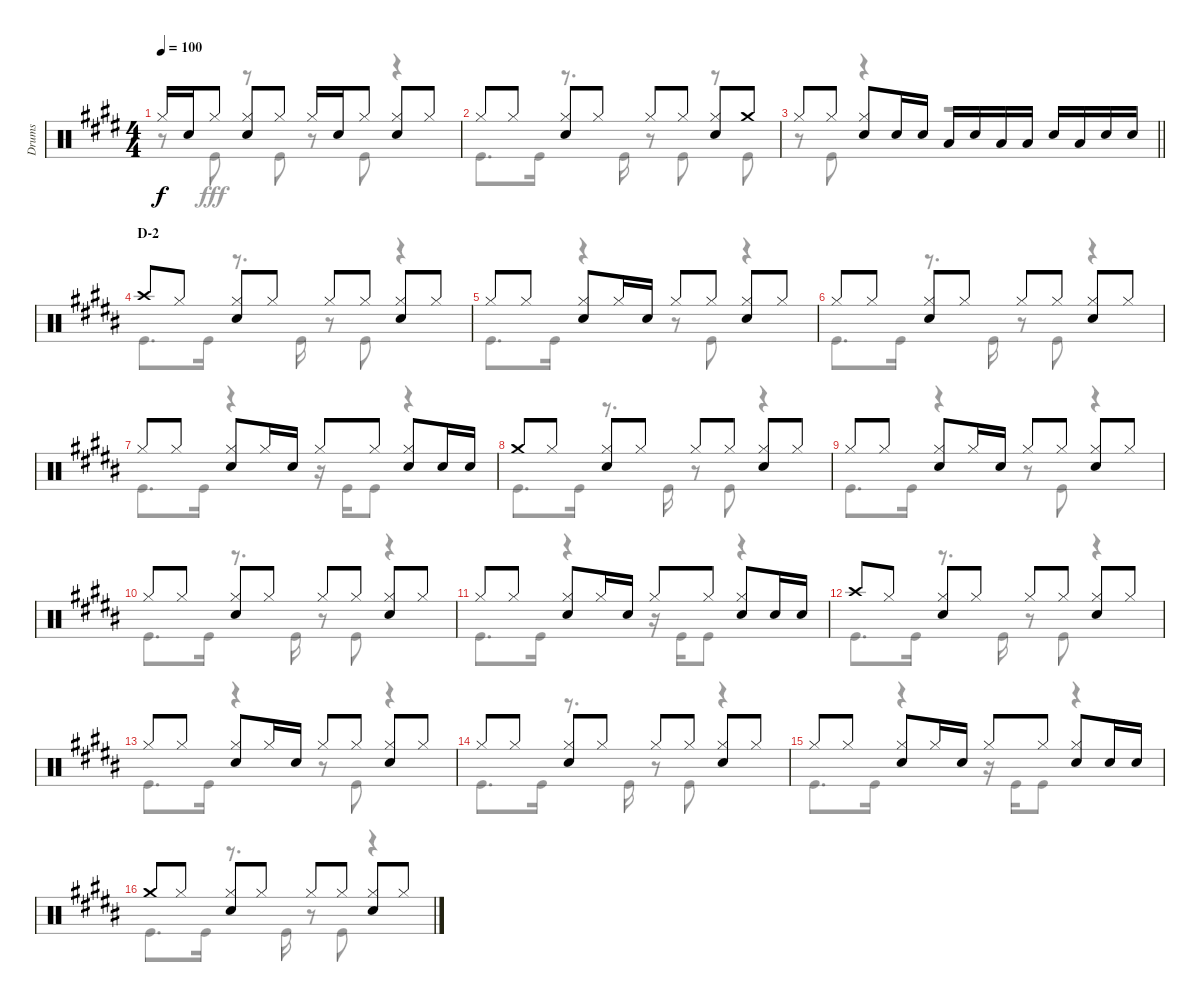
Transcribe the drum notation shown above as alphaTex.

\track ("Drums" "Drums") {instrument percussion}
\staff {score}
\articulation defaults
\voice
\ts (4 4)
\tempo 100
\clef neutral
\ks e "Hi-Hat (closed)".16{dy f} "Snare (hit) 2".16 "Hi-Hat (closed)".8
("Hi-Hat (closed)" "Snare (hit) 2").8 "Hi-Hat (closed)".8 "Hi-Hat (closed)".16 "Snare (hit) 2".16 "Hi-Hat (closed)".8 ("Hi-Hat (closed)" "Snare (hit) 2").8 "Hi-Hat (closed)".8 |
"Hi-Hat (closed)".8 "Hi-Hat (closed)".8 ("Hi-Hat (closed)" "Snare (hit) 2").8 "Hi-Hat (closed)".8 "Hi-Hat (closed)".8 "Hi-Hat (closed)".8 ("Hi-Hat (closed)" "Snare (hit) 2").8 "Crash medium (hit)".8 |
\barLineRight lightlight "Hi-Hat (closed)".8 "Hi-Hat (closed)".8
("Hi-Hat (closed)" "Snare (hit) 2").8 "Snare (hit) 2".16 "Snare (hit) 2".16 "Low Tom (hit)".16 "Snare (hit) 2".16 "Low Tom (hit)".16 "Low Tom (hit)".16 "Snare (hit) 2".16 "Low Tom (hit)".16 "Snare (hit) 2".16 "Snare (hit) 2".16 |
\section ("" "D-2")
\ks b "Crash high (hit)".8 "Hi-Hat (closed)".8
("Hi-Hat (closed)" "Snare (hit) 2").8 "Hi-Hat (closed)".8 "Hi-Hat (closed)".8 "Hi-Hat (closed)".8 ("Hi-Hat (closed)" "Snare (hit) 2").8 "Hi-Hat (closed)".8 |
"Hi-Hat (closed)".8 "Hi-Hat (closed)".8 ("Hi-Hat (closed)" "Snare (hit) 2").8 "Hi-Hat (closed)".16 "Snare (hit) 2".16 "Hi-Hat (closed)".8 "Hi-Hat (closed)".8 ("Hi-Hat (closed)" "Snare (hit) 2").8 "Hi-Hat (closed)".8 |
"Hi-Hat (closed)".8 "Hi-Hat (closed)".8 ("Hi-Hat (closed)" "Snare (hit) 2").8 "Hi-Hat (closed)".8 "Hi-Hat (closed)".8 "Hi-Hat (closed)".8 ("Hi-Hat (closed)" "Snare (hit) 2").8 "Hi-Hat (closed)".8 |
"Hi-Hat (closed)".8 "Hi-Hat (closed)".8 ("Hi-Hat (closed)" "Snare (hit) 2").8 "Hi-Hat (closed)".16 "Snare (hit) 2".16 "Hi-Hat (closed)".8 "Hi-Hat (closed)".8 ("Hi-Hat (closed)" "Snare (hit) 2").8 "Snare (hit) 2".16 "Snare (hit) 2".16 |
"Crash medium (hit)".8 "Hi-Hat (closed)".8 ("Hi-Hat (closed)" "Snare (hit) 2").8 "Hi-Hat (closed)".8 "Hi-Hat (closed)".8 "Hi-Hat (closed)".8 ("Hi-Hat (closed)" "Snare (hit) 2").8 "Hi-Hat (closed)".8 |
"Hi-Hat (closed)".8 "Hi-Hat (closed)".8 ("Hi-Hat (closed)" "Snare (hit) 2").8 "Hi-Hat (closed)".16 "Snare (hit) 2".16 "Hi-Hat (closed)".8 "Hi-Hat (closed)".8 ("Hi-Hat (closed)" "Snare (hit) 2").8 "Hi-Hat (closed)".8 |
"Hi-Hat (closed)".8 "Hi-Hat (closed)".8 ("Hi-Hat (closed)" "Snare (hit) 2").8 "Hi-Hat (closed)".8 "Hi-Hat (closed)".8 "Hi-Hat (closed)".8 ("Hi-Hat (closed)" "Snare (hit) 2").8 "Hi-Hat (closed)".8 |
"Hi-Hat (closed)".8 "Hi-Hat (closed)".8 ("Hi-Hat (closed)" "Snare (hit) 2").8 "Hi-Hat (closed)".16 "Snare (hit) 2".16 "Hi-Hat (closed)".8 "Hi-Hat (closed)".8 ("Hi-Hat (closed)" "Snare (hit) 2").8 "Snare (hit) 2".16 "Snare (hit) 2".16 |
"Crash high (hit)".8 "Hi-Hat (closed)".8 ("Hi-Hat (closed)" "Snare (hit) 2").8 "Hi-Hat (closed)".8 "Hi-Hat (closed)".8 "Hi-Hat (closed)".8 ("Hi-Hat (closed)" "Snare (hit) 2").8 "Hi-Hat (closed)".8 |
"Hi-Hat (closed)".8 "Hi-Hat (closed)".8 ("Hi-Hat (closed)" "Snare (hit) 2").8 "Hi-Hat (closed)".16 "Snare (hit) 2".16 "Hi-Hat (closed)".8 "Hi-Hat (closed)".8 ("Hi-Hat (closed)" "Snare (hit) 2").8 "Hi-Hat (closed)".8 |
"Hi-Hat (closed)".8 "Hi-Hat (closed)".8 ("Hi-Hat (closed)" "Snare (hit) 2").8 "Hi-Hat (closed)".8 "Hi-Hat (closed)".8 "Hi-Hat (closed)".8 ("Hi-Hat (closed)" "Snare (hit) 2").8 "Hi-Hat (closed)".8 |
"Hi-Hat (closed)".8 "Hi-Hat (closed)".8 ("Hi-Hat (closed)" "Snare (hit) 2").8 "Hi-Hat (closed)".16 "Snare (hit) 2".16 "Hi-Hat (closed)".8 "Hi-Hat (closed)".8 ("Hi-Hat (closed)" "Snare (hit) 2").8 "Snare (hit) 2".16 "Snare (hit) 2".16 |
"Crash medium (hit)".8 "Hi-Hat (closed)".8 ("Hi-Hat (closed)" "Snare (hit) 2").8 "Hi-Hat (closed)".8 "Hi-Hat (closed)".8 "Hi-Hat (closed)".8 ("Hi-Hat (closed)" "Snare (hit) 2").8 "Hi-Hat (closed)".8
\voice
\clef neutral
\ottava regular
\simile none
\ks e
r.8{dy fff} "Kick (hit)".8 r.8 "Kick (hit)".8 r.8 "Kick (hit)".8 r.4 |
"Kick (hit)".8{d} "Kick (hit)".16 r.8{d} "Kick (hit)".16 r.8 "Kick (hit)".8 r.8 "Kick (hit)".8 |
\barLineRight lightlight
r.8 "Kick (hit)".8 r.4 r.2 |
\ks b "Kick (hit)".8{d} "Kick (hit)".16
r.8{d} "Kick (hit)".16 r.8 "Kick (hit)".8 r.4 |
"Kick (hit)".8{d} "Kick (hit)".16 r.4 r.8 "Kick (hit)".8 r.4 |
"Kick (hit)".8{d} "Kick (hit)".16 r.8{d} "Kick (hit)".16 r.8 "Kick (hit)".8 r.4 |
"Kick (hit)".8{d} "Kick (hit)".16 r.4 r.16 "Kick (hit)".16 "Kick (hit)".8 r.4 |
"Kick (hit)".8{d} "Kick (hit)".16 r.8{d} "Kick (hit)".16 r.8 "Kick (hit)".8 r.4 |
"Kick (hit)".8{d} "Kick (hit)".16 r.4 r.8 "Kick (hit)".8 r.4 |
"Kick (hit)".8{d} "Kick (hit)".16 r.8{d} "Kick (hit)".16 r.8 "Kick (hit)".8 r.4 |
"Kick (hit)".8{d} "Kick (hit)".16 r.4 r.16 "Kick (hit)".16 "Kick (hit)".8 r.4 |
"Kick (hit)".8{d} "Kick (hit)".16 r.8{d} "Kick (hit)".16 r.8 "Kick (hit)".8 r.4 |
"Kick (hit)".8{d} "Kick (hit)".16 r.4 r.8 "Kick (hit)".8 r.4 |
"Kick (hit)".8{d} "Kick (hit)".16 r.8{d} "Kick (hit)".16 r.8 "Kick (hit)".8 r.4 |
"Kick (hit)".8{d} "Kick (hit)".16 r.4 r.16 "Kick (hit)".16 "Kick (hit)".8 r.4 |
"Kick (hit)".8{d} "Kick (hit)".16 r.8{d} "Kick (hit)".16 r.8 "Kick (hit)".8 r.4
